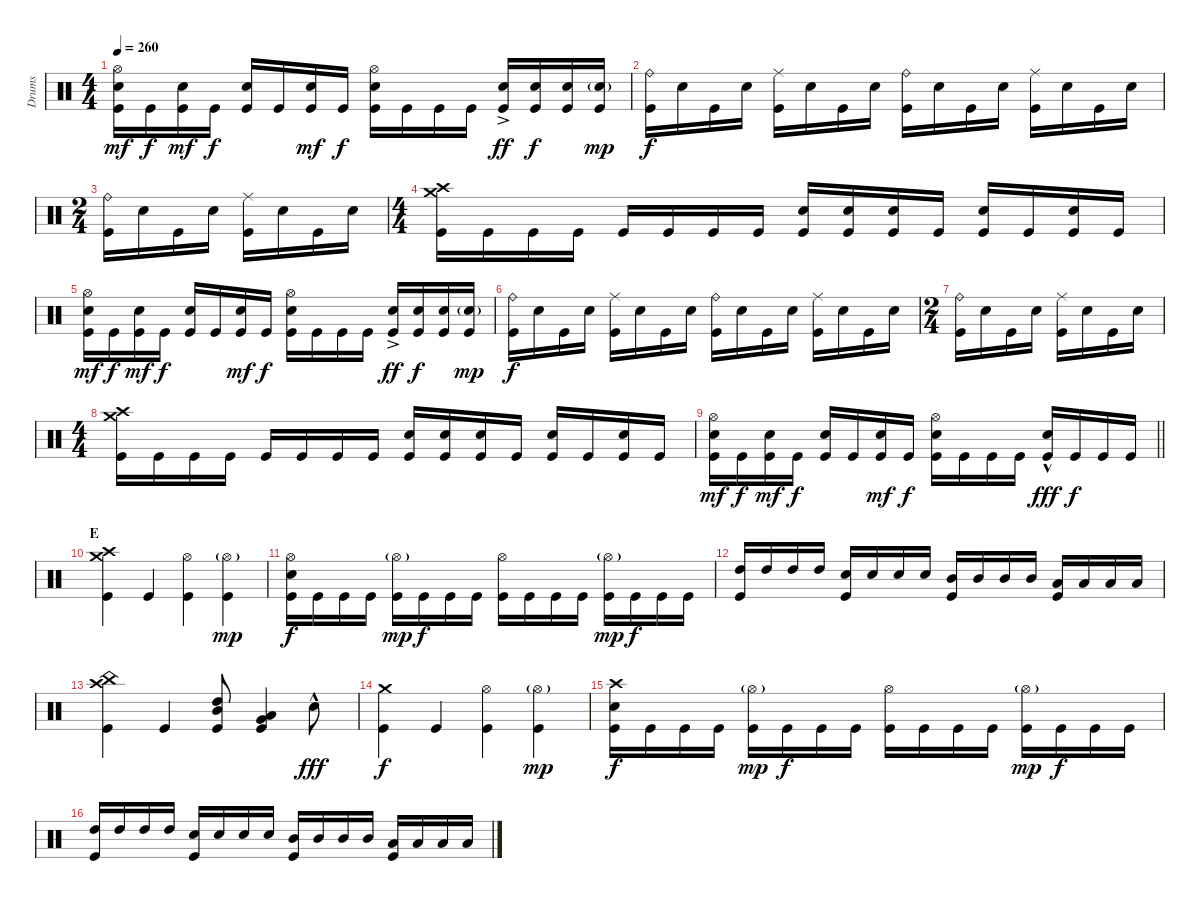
\track ("Drums" "Drums") {instrument percussion}
\staff {score}
\articulation defaults
\ts (4 4)
\tempo 260
\clef neutral
\ks c
("Hi-Hat (open)" "Electric Snare (hit)" "Kick (hit)").16{dy mf} "Kick (hit)".16{dy f} ("Electric Snare (hit)" "Kick (hit)").16{dy mf} "Kick (hit)".16{dy f} ("Electric Snare (hit)" "Kick (hit)").16 "Kick (hit)".16 ("Electric Snare (hit)" "Kick (hit)").16{dy mf} "Kick (hit)".16{dy f} ("Hi-Hat (open)" "Electric Snare (hit)" "Kick (hit)").16 "Kick (hit)".16 "Kick (hit)".16 "Kick (hit)".16 ("Electric Snare (hit)"{ac} "Kick (hit)").16{dy ff} ("Electric Snare (hit)" "Kick (hit)").16{dy f} ("Electric Snare (hit)" "Kick (hit)").16 ("Electric Snare (hit)"{g} "Kick (hit)").16{dy mp} |
("Ride (bell)" "Kick (hit)").16{dy f} "Electric Snare (hit)".16 "Kick (hit)".16 "Electric Snare (hit)".16 ("Ride (middle)" "Kick (hit)").16 "Electric Snare (hit)".16 "Kick (hit)".16 "Electric Snare (hit)".16 ("Ride (bell)" "Kick (hit)").16 "Electric Snare (hit)".16 "Kick (hit)".16 "Electric Snare (hit)".16 ("Ride (middle)" "Kick (hit)").16 "Electric Snare (hit)".16 "Kick (hit)".16 "Electric Snare (hit)".16 |
\ts (2 4)
("Ride (bell)" "Kick (hit)").16 "Electric Snare (hit)".16 "Kick (hit)".16 "Electric Snare (hit)".16 ("Ride (middle)" "Kick (hit)").16 "Electric Snare (hit)".16 "Kick (hit)".16 "Electric Snare (hit)".16 |
\ts (4 4)
("Crash high (hit)" "Crash medium (hit)" "Kick (hit)").16 "Kick (hit)".16 "Kick (hit)".16 "Kick (hit)".16 "Kick (hit)".16 "Kick (hit)".16 "Kick (hit)".16 "Kick (hit)".16 ("Electric Snare (hit)" "Kick (hit)").16 ("Electric Snare (hit)" "Kick (hit)").16 ("Electric Snare (hit)" "Kick (hit)").16 "Kick (hit)".16 ("Electric Snare (hit)" "Kick (hit)").16 "Kick (hit)".16 ("Electric Snare (hit)" "Kick (hit)").16 "Kick (hit)".16 |
("Hi-Hat (open)" "Electric Snare (hit)" "Kick (hit)").16{dy mf} "Kick (hit)".16{dy f} ("Electric Snare (hit)" "Kick (hit)").16{dy mf} "Kick (hit)".16{dy f} ("Electric Snare (hit)" "Kick (hit)").16 "Kick (hit)".16 ("Electric Snare (hit)" "Kick (hit)").16{dy mf} "Kick (hit)".16{dy f} ("Hi-Hat (open)" "Electric Snare (hit)" "Kick (hit)").16 "Kick (hit)".16 "Kick (hit)".16 "Kick (hit)".16 ("Electric Snare (hit)"{ac} "Kick (hit)").16{dy ff} ("Electric Snare (hit)" "Kick (hit)").16{dy f} ("Electric Snare (hit)" "Kick (hit)").16 ("Electric Snare (hit)"{g} "Kick (hit)").16{dy mp} |
("Ride (bell)" "Kick (hit)").16{dy f} "Electric Snare (hit)".16 "Kick (hit)".16 "Electric Snare (hit)".16 ("Ride (middle)" "Kick (hit)").16 "Electric Snare (hit)".16 "Kick (hit)".16 "Electric Snare (hit)".16 ("Ride (bell)" "Kick (hit)").16 "Electric Snare (hit)".16 "Kick (hit)".16 "Electric Snare (hit)".16 ("Ride (middle)" "Kick (hit)").16 "Electric Snare (hit)".16 "Kick (hit)".16 "Electric Snare (hit)".16 |
\ts (2 4)
("Ride (bell)" "Kick (hit)").16 "Electric Snare (hit)".16 "Kick (hit)".16 "Electric Snare (hit)".16 ("Ride (middle)" "Kick (hit)").16 "Electric Snare (hit)".16 "Kick (hit)".16 "Electric Snare (hit)".16 |
\ts (4 4)
("Crash high (hit)" "Crash medium (hit)" "Kick (hit)").16 "Kick (hit)".16 "Kick (hit)".16 "Kick (hit)".16 "Kick (hit)".16 "Kick (hit)".16 "Kick (hit)".16 "Kick (hit)".16 ("Electric Snare (hit)" "Kick (hit)").16 ("Electric Snare (hit)" "Kick (hit)").16 ("Electric Snare (hit)" "Kick (hit)").16 "Kick (hit)".16 ("Electric Snare (hit)" "Kick (hit)").16 "Kick (hit)".16 ("Electric Snare (hit)" "Kick (hit)").16 "Kick (hit)".16 |
\barLineRight lightlight
("Hi-Hat (open)" "Electric Snare (hit)" "Kick (hit)").16{dy mf} "Kick (hit)".16{dy f} ("Electric Snare (hit)" "Kick (hit)").16{dy mf} "Kick (hit)".16{dy f} ("Electric Snare (hit)" "Kick (hit)").16 "Kick (hit)".16 ("Electric Snare (hit)" "Kick (hit)").16{dy mf} "Kick (hit)".16{dy f} ("Hi-Hat (open)" "Electric Snare (hit)" "Kick (hit)").16 "Kick (hit)".16 "Kick (hit)".16 "Kick (hit)".16 ("Electric Snare (hit)"{hac} "Kick (hit)").16{dy fff} "Kick (hit)".16{dy f} "Kick (hit)".16 "Kick (hit)".16 |
\section ("" "E")
("Crash high (hit)" "Crash medium (hit)" "Kick (hit)").4 "Kick (hit)".4 ("Hi-Hat (open)" "Kick (hit)").4 ("Hi-Hat (open)"{g} "Kick (hit)").4{dy mp} |
("Hi-Hat (open)" "Electric Snare (hit)" "Kick (hit)").16{dy f} "Kick (hit)".16 "Kick (hit)".16 "Kick (hit)".16 ("Hi-Hat (open)"{g} "Kick (hit)").16{dy mp} "Kick (hit)".16{dy f} "Kick (hit)".16 "Kick (hit)".16 ("Hi-Hat (open)" "Kick (hit)").16 "Kick (hit)".16 "Kick (hit)".16 "Kick (hit)".16 ("Hi-Hat (open)"{g} "Kick (hit)").16{dy mp} "Kick (hit)".16{dy f} "Kick (hit)".16 "Kick (hit)".16 |
("High Tom (hit)" "Kick (hit)").16 "High Tom (hit)".16 "High Tom (hit)".16 "High Tom (hit)".16 ("Electric Snare (hit)" "Kick (hit)").16 "Electric Snare (hit)".16 "Electric Snare (hit)".16 "Electric Snare (hit)".16 ("Mid Tom (hit)" "Kick (hit)").16 "Mid Tom (hit)".16 "Mid Tom (hit)".16 "Mid Tom (hit)".16 ("Low Tom (hit)" "Kick (hit)").16 "Low Tom (hit)".16 "Low Tom (hit)".16 "Low Tom (hit)".16 |
("China (hit)" "Crash high (hit)" "Kick (hit)").4 "Kick (hit)".4 ("High Tom (hit)" "Mid Tom (hit)" "Kick (hit)").8 ("Low Tom (hit)" "Very Low Tom (hit)" "Kick (hit)").4 "Electric Snare (hit)"{hac}.8{dy fff} |
("Crash medium (hit)" "Kick (hit)").4{dy f} "Kick (hit)".4 ("Hi-Hat (open)" "Kick (hit)").4 ("Hi-Hat (open)"{g} "Kick (hit)").4{dy mp} |
("Crash high (hit)" "Electric Snare (hit)" "Kick (hit)").16{dy f} "Kick (hit)".16 "Kick (hit)".16 "Kick (hit)".16 ("Hi-Hat (open)"{g} "Kick (hit)").16{dy mp} "Kick (hit)".16{dy f} "Kick (hit)".16 "Kick (hit)".16 ("Hi-Hat (open)" "Kick (hit)").16 "Kick (hit)".16 "Kick (hit)".16 "Kick (hit)".16 ("Hi-Hat (open)"{g} "Kick (hit)").16{dy mp} "Kick (hit)".16{dy f} "Kick (hit)".16 "Kick (hit)".16 |
("High Tom (hit)" "Kick (hit)").16 "High Tom (hit)".16 "High Tom (hit)".16 "High Tom (hit)".16 ("Electric Snare (hit)" "Kick (hit)").16 "Electric Snare (hit)".16 "Electric Snare (hit)".16 "Electric Snare (hit)".16 ("Mid Tom (hit)" "Kick (hit)").16 "Mid Tom (hit)".16 "Mid Tom (hit)".16 "Mid Tom (hit)".16 ("Low Tom (hit)" "Kick (hit)").16 "Low Tom (hit)".16 "Low Tom (hit)".16 "Low Tom (hit)".16
